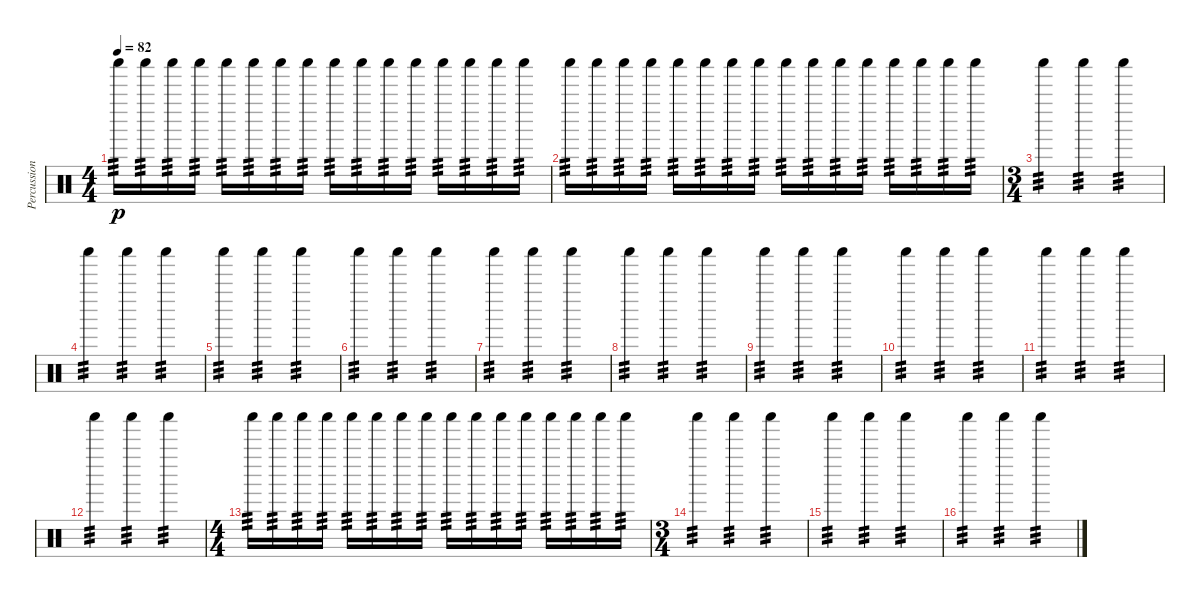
\track ("Percussions" "Percussion") {instrument percussion}
\staff {score}
\articulation defaults
\ts (4 4)
\tempo 82
\clef neutral
\ks c "Shaker (hit)".16{tp 3 dy p} "Shaker (hit)".16{tp 3} "Shaker (hit)".16{tp 3} "Shaker (hit)".16{tp 3} "Shaker (hit)".16{tp 3} "Shaker (hit)".16{tp 3} "Shaker (hit)".16{tp 3} "Shaker (hit)".16{tp 3} "Shaker (hit)".16{tp 3} "Shaker (hit)".16{tp 3} "Shaker (hit)".16{tp 3} "Shaker (hit)".16{tp 3} "Shaker (hit)".16{tp 3} "Shaker (hit)".16{tp 3} "Shaker (hit)".16{tp 3} "Shaker (hit)".16{tp 3}
|
"Shaker (hit)".16{tp 3} "Shaker (hit)".16{tp 3} "Shaker (hit)".16{tp 3} "Shaker (hit)".16{tp 3} "Shaker (hit)".16{tp 3} "Shaker (hit)".16{tp 3} "Shaker (hit)".16{tp 3} "Shaker (hit)".16{tp 3} "Shaker (hit)".16{tp 3} "Shaker (hit)".16{tp 3} "Shaker (hit)".16{tp 3} "Shaker (hit)".16{tp 3} "Shaker (hit)".16{tp 3} "Shaker (hit)".16{tp 3} "Shaker (hit)".16{tp 3} "Shaker (hit)".16{tp 3} |
\ts (3 4)
"Shaker (hit)".4{tp 3} "Shaker (hit)".4{tp 3} "Shaker (hit)".4{tp 3} |
"Shaker (hit)".4{tp 3} "Shaker (hit)".4{tp 3} "Shaker (hit)".4{tp 3} |
"Shaker (hit)".4{tp 3} "Shaker (hit)".4{tp 3} "Shaker (hit)".4{tp 3} |
"Shaker (hit)".4{tp 3} "Shaker (hit)".4{tp 3} "Shaker (hit)".4{tp 3} |
"Shaker (hit)".4{tp 3} "Shaker (hit)".4{tp 3} "Shaker (hit)".4{tp 3} |
"Shaker (hit)".4{tp 3} "Shaker (hit)".4{tp 3} "Shaker (hit)".4{tp 3} |
"Shaker (hit)".4{tp 3} "Shaker (hit)".4{tp 3} "Shaker (hit)".4{tp 3} |
"Shaker (hit)".4{tp 3} "Shaker (hit)".4{tp 3} "Shaker (hit)".4{tp 3} |
"Shaker (hit)".4{tp 3} "Shaker (hit)".4{tp 3} "Shaker (hit)".4{tp 3} |
"Shaker (hit)".4{tp 3} "Shaker (hit)".4{tp 3} "Shaker (hit)".4{tp 3} |
\ts (4 4)
"Shaker (hit)".16{tp 3} "Shaker (hit)".16{tp 3} "Shaker (hit)".16{tp 3} "Shaker (hit)".16{tp 3} "Shaker (hit)".16{tp 3} "Shaker (hit)".16{tp 3} "Shaker (hit)".16{tp 3} "Shaker (hit)".16{tp 3} "Shaker (hit)".16{tp 3} "Shaker (hit)".16{tp 3} "Shaker (hit)".16{tp 3} "Shaker (hit)".16{tp 3} "Shaker (hit)".16{tp 3} "Shaker (hit)".16{tp 3} "Shaker (hit)".16{tp 3} "Shaker (hit)".16{tp 3} |
\ts (3 4)
"Shaker (hit)".4{tp 3} "Shaker (hit)".4{tp 3} "Shaker (hit)".4{tp 3} |
"Shaker (hit)".4{tp 3} "Shaker (hit)".4{tp 3} "Shaker (hit)".4{tp 3} |
"Shaker (hit)".4{tp 3} "Shaker (hit)".4{tp 3} "Shaker (hit)".4{tp 3}
